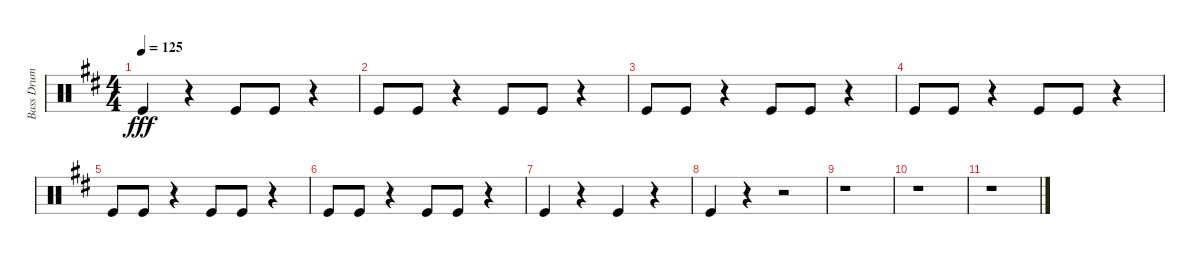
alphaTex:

\track ("Bass Drum" "Bass Drum") {instrument percussion}
\staff {score}
\articulation defaults
\ts (4 4)
\tempo 125
\clef neutral
\ks d "Kick (hit)".4{dy fff}
r.4 "Kick (hit)".8 "Kick (hit)".8 r.4 |
"Kick (hit)".8 "Kick (hit)".8 r.4 "Kick (hit)".8 "Kick (hit)".8 r.4 |
"Kick (hit)".8 "Kick (hit)".8 r.4 "Kick (hit)".8 "Kick (hit)".8 r.4 |
"Kick (hit)".8 "Kick (hit)".8 r.4 "Kick (hit)".8 "Kick (hit)".8 r.4 |
"Kick (hit)".8 "Kick (hit)".8 r.4 "Kick (hit)".8 "Kick (hit)".8 r.4 |
"Kick (hit)".8 "Kick (hit)".8 r.4 "Kick (hit)".8 "Kick (hit)".8 r.4 |
"Kick (hit)".4 r.4 "Kick (hit)".4 r.4 |
"Kick (hit)".4 r.4 r.2 |
r.1 |
r.1 |
r.1
